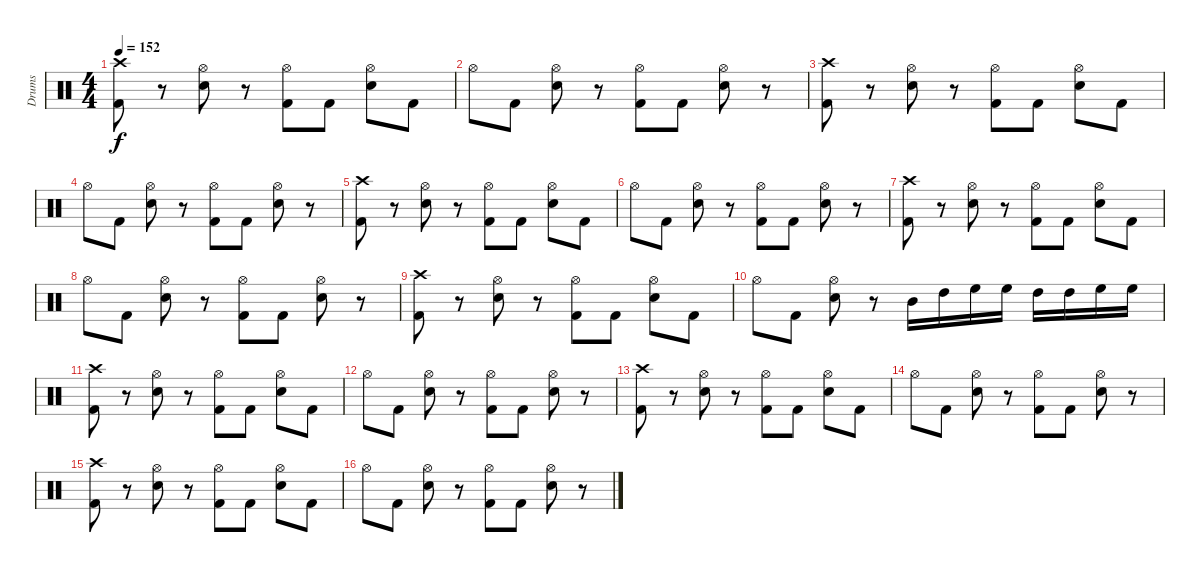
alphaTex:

\track ("Drums" "Drums") {instrument percussion}
\staff {score}
\articulation defaults
\ts (4 4)
\tempo 152
\clef neutral
\ks c
("Crash high (hit)" "Kick (hit) 2").8{dy f} r.8 ("Hi-Hat (open)" "Snare (hit) 2").8 r.8 ("Hi-Hat (open)" "Kick (hit) 2").8 "Kick (hit) 2".8 ("Hi-Hat (open)" "Snare (hit) 2").8 "Kick (hit) 2".8 |
"Hi-Hat (open)".8 "Kick (hit) 2".8 ("Hi-Hat (open)" "Snare (hit) 2").8 r.8 ("Hi-Hat (open)" "Kick (hit) 2").8 "Kick (hit) 2".8 ("Hi-Hat (open)" "Snare (hit) 2").8 r.8 |
("Crash high (hit)" "Kick (hit) 2").8 r.8 ("Hi-Hat (open)" "Snare (hit) 2").8 r.8 ("Hi-Hat (open)" "Kick (hit) 2").8 "Kick (hit) 2".8 ("Hi-Hat (open)" "Snare (hit) 2").8 "Kick (hit) 2".8 |
"Hi-Hat (open)".8 "Kick (hit) 2".8 ("Hi-Hat (open)" "Snare (hit) 2").8 r.8 ("Hi-Hat (open)" "Kick (hit) 2").8 "Kick (hit) 2".8 ("Hi-Hat (open)" "Snare (hit) 2").8 r.8 |
("Crash high (hit)" "Kick (hit) 2").8 r.8 ("Hi-Hat (open)" "Snare (hit) 2").8 r.8 ("Hi-Hat (open)" "Kick (hit) 2").8 "Kick (hit) 2".8 ("Hi-Hat (open)" "Snare (hit) 2").8 "Kick (hit) 2".8 |
"Hi-Hat (open)".8 "Kick (hit) 2".8 ("Hi-Hat (open)" "Snare (hit) 2").8 r.8 ("Hi-Hat (open)" "Kick (hit) 2").8 "Kick (hit) 2".8 ("Hi-Hat (open)" "Snare (hit) 2").8 r.8 |
("Crash high (hit)" "Kick (hit) 2").8 r.8 ("Hi-Hat (open)" "Snare (hit) 2").8 r.8 ("Hi-Hat (open)" "Kick (hit) 2").8 "Kick (hit) 2".8 ("Hi-Hat (open)" "Snare (hit) 2").8 "Kick (hit) 2".8 |
"Hi-Hat (open)".8 "Kick (hit) 2".8 ("Hi-Hat (open)" "Snare (hit) 2").8 r.8 ("Hi-Hat (open)" "Kick (hit) 2").8 "Kick (hit) 2".8 ("Hi-Hat (open)" "Snare (hit) 2").8 r.8 |
("Crash high (hit)" "Kick (hit) 2").8 r.8 ("Hi-Hat (open)" "Snare (hit) 2").8 r.8 ("Hi-Hat (open)" "Kick (hit) 2").8 "Kick (hit) 2".8 ("Hi-Hat (open)" "Snare (hit) 2").8 "Kick (hit) 2".8 |
"Hi-Hat (open)".8 "Kick (hit) 2".8 ("Hi-Hat (open)" "Snare (hit) 2").8 r.8 "Mid Tom (hit)".16 "High Tom (hit)".16 "High Floor Tom (hit)".16 "High Floor Tom (hit)".16 "High Tom (hit)".16 "High Tom (hit)".16 "High Floor Tom (hit)".16 "High Floor Tom (hit)".16 |
("Crash high (hit)" "Kick (hit) 2").8 r.8 ("Hi-Hat (open)" "Snare (hit) 2").8 r.8 ("Hi-Hat (open)" "Kick (hit) 2").8 "Kick (hit) 2".8 ("Hi-Hat (open)" "Snare (hit) 2").8 "Kick (hit) 2".8 |
"Hi-Hat (open)".8 "Kick (hit) 2".8 ("Hi-Hat (open)" "Snare (hit) 2").8 r.8 ("Hi-Hat (open)" "Kick (hit) 2").8 "Kick (hit) 2".8 ("Hi-Hat (open)" "Snare (hit) 2").8 r.8 |
("Crash high (hit)" "Kick (hit) 2").8 r.8 ("Hi-Hat (open)" "Snare (hit) 2").8 r.8 ("Hi-Hat (open)" "Kick (hit) 2").8 "Kick (hit) 2".8 ("Hi-Hat (open)" "Snare (hit) 2").8 "Kick (hit) 2".8 |
"Hi-Hat (open)".8 "Kick (hit) 2".8 ("Hi-Hat (open)" "Snare (hit) 2").8 r.8 ("Hi-Hat (open)" "Kick (hit) 2").8 "Kick (hit) 2".8 ("Hi-Hat (open)" "Snare (hit) 2").8 r.8 |
("Crash high (hit)" "Kick (hit) 2").8 r.8 ("Hi-Hat (open)" "Snare (hit) 2").8 r.8 ("Hi-Hat (open)" "Kick (hit) 2").8 "Kick (hit) 2".8 ("Hi-Hat (open)" "Snare (hit) 2").8 "Kick (hit) 2".8 |
"Hi-Hat (open)".8 "Kick (hit) 2".8 ("Hi-Hat (open)" "Snare (hit) 2").8 r.8 ("Hi-Hat (open)" "Kick (hit) 2").8 "Kick (hit) 2".8 ("Hi-Hat (open)" "Snare (hit) 2").8 r.8
